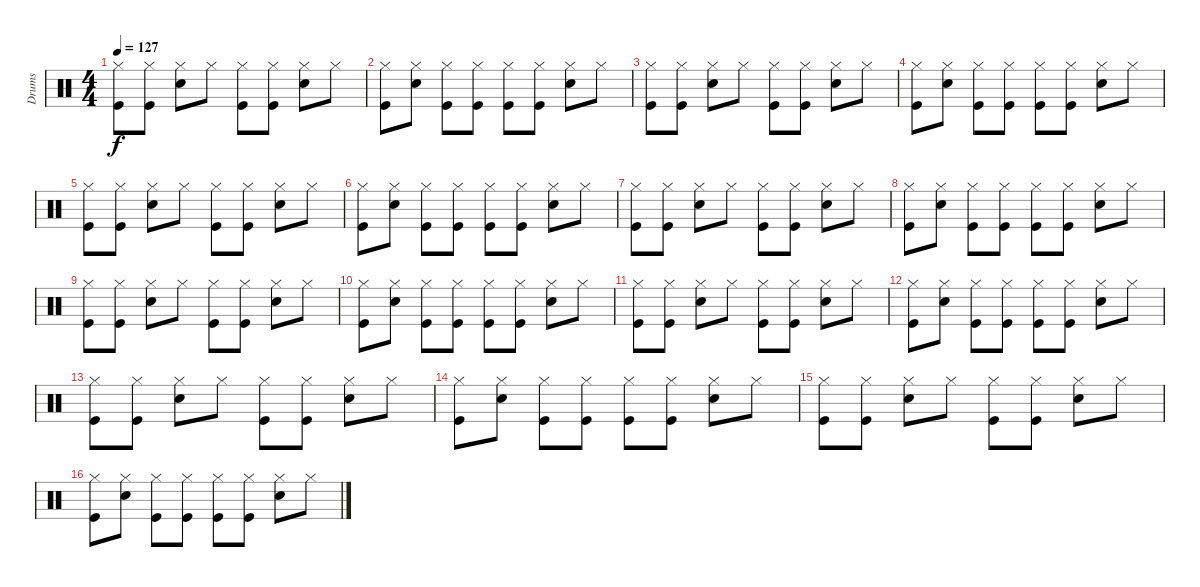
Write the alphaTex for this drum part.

\track ("Drums" "Drums") {instrument percussion}
\staff {score}
\articulation defaults
\ts (4 4)
\tempo 127
\clef neutral
\ks c
("Hi-Hat (closed)" "Kick (hit)").8{dy f} ("Hi-Hat (closed)" "Kick (hit)").8 ("Hi-Hat (closed)" "Electric Snare (hit)").8 "Hi-Hat (closed)".8 ("Hi-Hat (closed)" "Kick (hit)").8 ("Hi-Hat (closed)" "Kick (hit)").8 ("Hi-Hat (closed)" "Electric Snare (hit)").8 "Hi-Hat (closed)".8 |
("Hi-Hat (closed)" "Kick (hit)").8 ("Hi-Hat (closed)" "Electric Snare (hit)").8 ("Hi-Hat (closed)" "Kick (hit)").8 ("Hi-Hat (closed)" "Kick (hit)").8 ("Hi-Hat (closed)" "Kick (hit)").8 ("Hi-Hat (closed)" "Kick (hit)").8 ("Hi-Hat (closed)" "Electric Snare (hit)").8 "Hi-Hat (closed)".8 |
("Hi-Hat (closed)" "Kick (hit)").8 ("Hi-Hat (closed)" "Kick (hit)").8 ("Hi-Hat (closed)" "Electric Snare (hit)").8 "Hi-Hat (closed)".8 ("Hi-Hat (closed)" "Kick (hit)").8 ("Hi-Hat (closed)" "Kick (hit)").8 ("Hi-Hat (closed)" "Electric Snare (hit)").8 "Hi-Hat (closed)".8 |
("Hi-Hat (closed)" "Kick (hit)").8 ("Hi-Hat (closed)" "Electric Snare (hit)").8 ("Hi-Hat (closed)" "Kick (hit)").8 ("Hi-Hat (closed)" "Kick (hit)").8 ("Hi-Hat (closed)" "Kick (hit)").8 ("Hi-Hat (closed)" "Kick (hit)").8 ("Hi-Hat (closed)" "Electric Snare (hit)").8 "Hi-Hat (closed)".8 |
("Hi-Hat (closed)" "Kick (hit)").8 ("Hi-Hat (closed)" "Kick (hit)").8 ("Hi-Hat (closed)" "Electric Snare (hit)").8 "Hi-Hat (closed)".8 ("Hi-Hat (closed)" "Kick (hit)").8 ("Hi-Hat (closed)" "Kick (hit)").8 ("Hi-Hat (closed)" "Electric Snare (hit)").8 "Hi-Hat (closed)".8 |
("Hi-Hat (closed)" "Kick (hit)").8 ("Hi-Hat (closed)" "Electric Snare (hit)").8 ("Hi-Hat (closed)" "Kick (hit)").8 ("Hi-Hat (closed)" "Kick (hit)").8 ("Hi-Hat (closed)" "Kick (hit)").8 ("Hi-Hat (closed)" "Kick (hit)").8 ("Hi-Hat (closed)" "Electric Snare (hit)").8 "Hi-Hat (closed)".8 |
("Hi-Hat (closed)" "Kick (hit)").8 ("Hi-Hat (closed)" "Kick (hit)").8 ("Hi-Hat (closed)" "Electric Snare (hit)").8 "Hi-Hat (closed)".8 ("Hi-Hat (closed)" "Kick (hit)").8 ("Hi-Hat (closed)" "Kick (hit)").8 ("Hi-Hat (closed)" "Electric Snare (hit)").8 "Hi-Hat (closed)".8 |
("Hi-Hat (closed)" "Kick (hit)").8 ("Hi-Hat (closed)" "Electric Snare (hit)").8 ("Hi-Hat (closed)" "Kick (hit)").8 ("Hi-Hat (closed)" "Kick (hit)").8 ("Hi-Hat (closed)" "Kick (hit)").8 ("Hi-Hat (closed)" "Kick (hit)").8 ("Hi-Hat (closed)" "Electric Snare (hit)").8 "Hi-Hat (closed)".8 |
("Hi-Hat (closed)" "Kick (hit)").8 ("Hi-Hat (closed)" "Kick (hit)").8 ("Hi-Hat (closed)" "Electric Snare (hit)").8 "Hi-Hat (closed)".8 ("Hi-Hat (closed)" "Kick (hit)").8 ("Hi-Hat (closed)" "Kick (hit)").8 ("Hi-Hat (closed)" "Electric Snare (hit)").8 "Hi-Hat (closed)".8 |
("Hi-Hat (closed)" "Kick (hit)").8 ("Hi-Hat (closed)" "Electric Snare (hit)").8 ("Hi-Hat (closed)" "Kick (hit)").8 ("Hi-Hat (closed)" "Kick (hit)").8 ("Hi-Hat (closed)" "Kick (hit)").8 ("Hi-Hat (closed)" "Kick (hit)").8 ("Hi-Hat (closed)" "Electric Snare (hit)").8 "Hi-Hat (closed)".8 |
("Hi-Hat (closed)" "Kick (hit)").8 ("Hi-Hat (closed)" "Kick (hit)").8 ("Hi-Hat (closed)" "Electric Snare (hit)").8 "Hi-Hat (closed)".8 ("Hi-Hat (closed)" "Kick (hit)").8 ("Hi-Hat (closed)" "Kick (hit)").8 ("Hi-Hat (closed)" "Electric Snare (hit)").8 "Hi-Hat (closed)".8 |
("Hi-Hat (closed)" "Kick (hit)").8 ("Hi-Hat (closed)" "Electric Snare (hit)").8 ("Hi-Hat (closed)" "Kick (hit)").8 ("Hi-Hat (closed)" "Kick (hit)").8 ("Hi-Hat (closed)" "Kick (hit)").8 ("Hi-Hat (closed)" "Kick (hit)").8 ("Hi-Hat (closed)" "Electric Snare (hit)").8 "Hi-Hat (closed)".8 |
("Hi-Hat (closed)" "Kick (hit)").8 ("Hi-Hat (closed)" "Kick (hit)").8 ("Hi-Hat (closed)" "Electric Snare (hit)").8 "Hi-Hat (closed)".8 ("Hi-Hat (closed)" "Kick (hit)").8 ("Hi-Hat (closed)" "Kick (hit)").8 ("Hi-Hat (closed)" "Electric Snare (hit)").8 "Hi-Hat (closed)".8 |
("Hi-Hat (closed)" "Kick (hit)").8 ("Hi-Hat (closed)" "Electric Snare (hit)").8 ("Hi-Hat (closed)" "Kick (hit)").8 ("Hi-Hat (closed)" "Kick (hit)").8 ("Hi-Hat (closed)" "Kick (hit)").8 ("Hi-Hat (closed)" "Kick (hit)").8 ("Hi-Hat (closed)" "Electric Snare (hit)").8 "Hi-Hat (closed)".8 |
("Hi-Hat (closed)" "Kick (hit)").8 ("Hi-Hat (closed)" "Kick (hit)").8 ("Hi-Hat (closed)" "Electric Snare (hit)").8 "Hi-Hat (closed)".8 ("Hi-Hat (closed)" "Kick (hit)").8 ("Hi-Hat (closed)" "Kick (hit)").8 ("Hi-Hat (closed)" "Electric Snare (hit)").8 "Hi-Hat (closed)".8 |
("Hi-Hat (closed)" "Kick (hit)").8 ("Hi-Hat (closed)" "Electric Snare (hit)").8 ("Hi-Hat (closed)" "Kick (hit)").8 ("Hi-Hat (closed)" "Kick (hit)").8 ("Hi-Hat (closed)" "Kick (hit)").8 ("Hi-Hat (closed)" "Kick (hit)").8 ("Hi-Hat (closed)" "Electric Snare (hit)").8 "Hi-Hat (closed)".8
